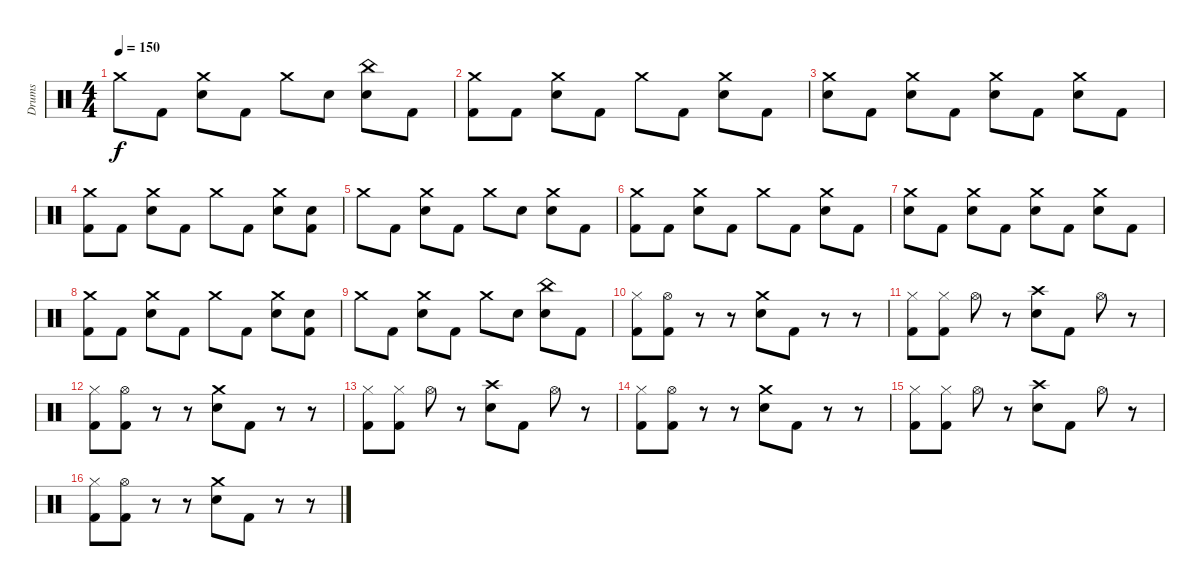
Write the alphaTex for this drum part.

\track ("Drums" "Drums") {instrument percussion}
\staff {score}
\articulation defaults
\ts (4 4)
\tempo 150
\clef neutral
\ks c "Crash medium (hit)".8{dy f} "Kick (hit) 2".8
("Crash medium (hit)" "Electric Snare (hit)").8 "Kick (hit) 2".8 "Crash medium (hit)".8 "Electric Snare (hit)".8 ("China (hit)" "Electric Snare (hit)").8 "Kick (hit) 2".8 |
("Crash medium (hit)" "Kick (hit) 2").8 "Kick (hit) 2".8 ("Crash medium (hit)" "Electric Snare (hit)").8 "Kick (hit) 2".8 "Crash medium (hit)".8 "Kick (hit) 2".8 ("Crash medium (hit)" "Electric Snare (hit)").8 "Kick (hit) 2".8 |
("Crash medium (hit)" "Electric Snare (hit)").8 "Kick (hit) 2".8 ("Crash medium (hit)" "Electric Snare (hit)").8 "Kick (hit) 2".8 ("Crash medium (hit)" "Electric Snare (hit)").8 "Kick (hit) 2".8 ("Crash medium (hit)" "Electric Snare (hit)").8 "Kick (hit) 2".8 |
("Crash medium (hit)" "Kick (hit) 2").8 "Kick (hit) 2".8 ("Crash medium (hit)" "Electric Snare (hit)").8 "Kick (hit) 2".8 "Crash medium (hit)".8 "Kick (hit) 2".8 ("Crash medium (hit)" "Electric Snare (hit)").8 ("Electric Snare (hit)" "Kick (hit) 2").8 |
"Crash medium (hit)".8 "Kick (hit) 2".8 ("Crash medium (hit)" "Electric Snare (hit)").8 "Kick (hit) 2".8 "Crash medium (hit)".8 "Electric Snare (hit)".8 ("Crash medium (hit)" "Electric Snare (hit)").8 "Kick (hit) 2".8 |
("Crash medium (hit)" "Kick (hit) 2").8 "Kick (hit) 2".8 ("Crash medium (hit)" "Electric Snare (hit)").8 "Kick (hit) 2".8 "Crash medium (hit)".8 "Kick (hit) 2".8 ("Crash medium (hit)" "Electric Snare (hit)").8 "Kick (hit) 2".8 |
("Crash medium (hit)" "Electric Snare (hit)").8 "Kick (hit) 2".8 ("Crash medium (hit)" "Electric Snare (hit)").8 "Kick (hit) 2".8 ("Crash medium (hit)" "Electric Snare (hit)").8 "Kick (hit) 2".8 ("Crash medium (hit)" "Electric Snare (hit)").8 "Kick (hit) 2".8 |
("Crash medium (hit)" "Kick (hit) 2").8 "Kick (hit) 2".8 ("Crash medium (hit)" "Electric Snare (hit)").8 "Kick (hit) 2".8 "Crash medium (hit)".8 "Kick (hit) 2".8 ("Crash medium (hit)" "Electric Snare (hit)").8 ("Electric Snare (hit)" "Kick (hit) 2").8 |
"Crash medium (hit)".8 "Kick (hit) 2".8 ("Crash medium (hit)" "Electric Snare (hit)").8 "Kick (hit) 2".8 "Crash medium (hit)".8 "Electric Snare (hit)".8 ("China (hit)" "Electric Snare (hit)").8 "Kick (hit) 2".8 |
("Hi-Hat (closed)" "Kick (hit) 2").8 ("Hi-Hat (open)" "Kick (hit) 2").8 r.8 r.8 ("Crash medium (hit)" "Electric Snare (hit)").8 "Kick (hit) 2".8 r.8 r.8 |
("Hi-Hat (closed)" "Kick (hit) 2").8 ("Hi-Hat (closed)" "Kick (hit) 2").8 "Hi-Hat (open)".8 r.8 ("Crash high (hit)" "Electric Snare (hit)").8 "Kick (hit) 2".8 "Hi-Hat (open)".8 r.8 |
("Hi-Hat (closed)" "Kick (hit) 2").8 ("Hi-Hat (open)" "Kick (hit) 2").8 r.8 r.8 ("Crash medium (hit)" "Electric Snare (hit)").8 "Kick (hit) 2".8 r.8 r.8 |
("Hi-Hat (closed)" "Kick (hit) 2").8 ("Hi-Hat (closed)" "Kick (hit) 2").8 "Hi-Hat (open)".8 r.8 ("Crash high (hit)" "Electric Snare (hit)").8 "Kick (hit) 2".8 "Hi-Hat (open)".8 r.8 |
("Hi-Hat (closed)" "Kick (hit) 2").8 ("Hi-Hat (open)" "Kick (hit) 2").8 r.8 r.8 ("Crash medium (hit)" "Electric Snare (hit)").8 "Kick (hit) 2".8 r.8 r.8 |
("Hi-Hat (closed)" "Kick (hit) 2").8 ("Hi-Hat (closed)" "Kick (hit) 2").8 "Hi-Hat (open)".8 r.8 ("Crash high (hit)" "Electric Snare (hit)").8 "Kick (hit) 2".8 "Hi-Hat (open)".8 r.8 |
("Hi-Hat (closed)" "Kick (hit) 2").8 ("Hi-Hat (open)" "Kick (hit) 2").8 r.8 r.8 ("Crash medium (hit)" "Electric Snare (hit)").8 "Kick (hit) 2".8 r.8 r.8
